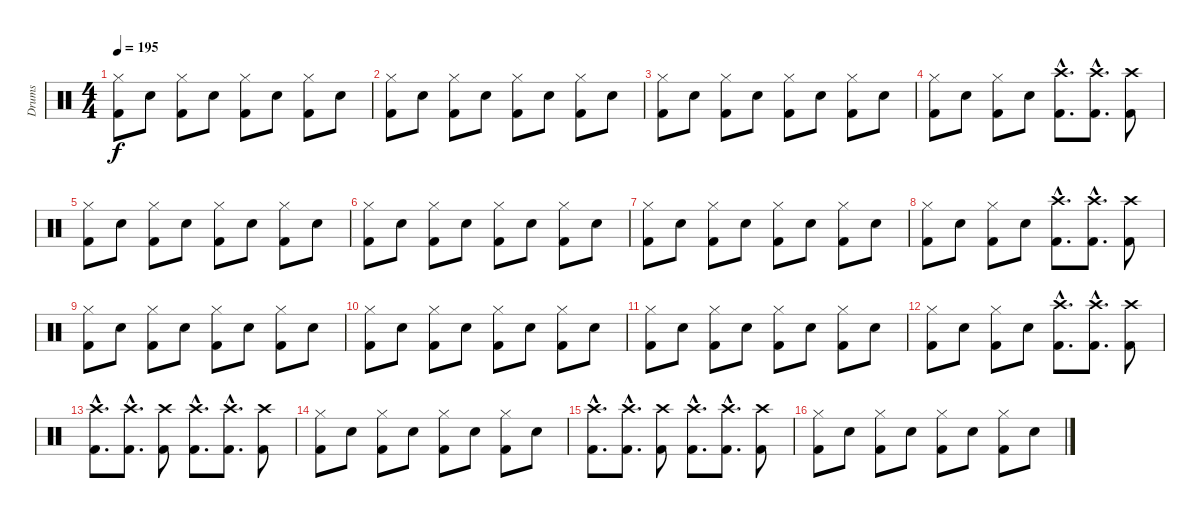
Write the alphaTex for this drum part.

\track ("Drums" "Drums") {instrument percussion}
\staff {score}
\articulation defaults
\ts (4 4)
\tempo 195
\clef neutral
\ks c
("Kick (hit) 2" "Hi-Hat (closed)").8{dy f} "Snare (hit) 2".8 ("Kick (hit) 2" "Hi-Hat (closed)").8 "Snare (hit) 2".8 ("Kick (hit) 2" "Hi-Hat (closed)").8 "Snare (hit) 2".8 ("Kick (hit) 2" "Hi-Hat (closed)").8 "Snare (hit) 2".8 |
("Kick (hit) 2" "Hi-Hat (closed)").8 "Snare (hit) 2".8 ("Kick (hit) 2" "Hi-Hat (closed)").8 "Snare (hit) 2".8 ("Kick (hit) 2" "Hi-Hat (closed)").8 "Snare (hit) 2".8 ("Kick (hit) 2" "Hi-Hat (closed)").8 "Snare (hit) 2".8 |
("Kick (hit) 2" "Hi-Hat (closed)").8 "Snare (hit) 2".8 ("Kick (hit) 2" "Hi-Hat (closed)").8 "Snare (hit) 2".8 ("Kick (hit) 2" "Hi-Hat (closed)").8 "Snare (hit) 2".8 ("Kick (hit) 2" "Hi-Hat (closed)").8 "Snare (hit) 2".8 |
("Kick (hit) 2" "Hi-Hat (closed)").8 "Snare (hit) 2".8 ("Kick (hit) 2" "Hi-Hat (closed)").8 "Snare (hit) 2".8 ("Kick (hit) 2"{hac} "Crash high (hit)"{hac}).8{d} ("Kick (hit) 2"{hac} "Crash high (hit)"{hac}).8{d} ("Kick (hit) 2" "Crash high (hit)").8 |
("Kick (hit) 2" "Hi-Hat (closed)").8 "Snare (hit) 2".8 ("Kick (hit) 2" "Hi-Hat (closed)").8 "Snare (hit) 2".8 ("Kick (hit) 2" "Hi-Hat (closed)").8 "Snare (hit) 2".8 ("Kick (hit) 2" "Hi-Hat (closed)").8 "Snare (hit) 2".8 |
("Kick (hit) 2" "Hi-Hat (closed)").8 "Snare (hit) 2".8 ("Kick (hit) 2" "Hi-Hat (closed)").8 "Snare (hit) 2".8 ("Kick (hit) 2" "Hi-Hat (closed)").8 "Snare (hit) 2".8 ("Kick (hit) 2" "Hi-Hat (closed)").8 "Snare (hit) 2".8 |
("Kick (hit) 2" "Hi-Hat (closed)").8 "Snare (hit) 2".8 ("Kick (hit) 2" "Hi-Hat (closed)").8 "Snare (hit) 2".8 ("Kick (hit) 2" "Hi-Hat (closed)").8 "Snare (hit) 2".8 ("Kick (hit) 2" "Hi-Hat (closed)").8 "Snare (hit) 2".8 |
("Kick (hit) 2" "Hi-Hat (closed)").8 "Snare (hit) 2".8 ("Kick (hit) 2" "Hi-Hat (closed)").8 "Snare (hit) 2".8 ("Kick (hit) 2"{hac} "Crash high (hit)"{hac}).8{d} ("Kick (hit) 2"{hac} "Crash high (hit)"{hac}).8{d} ("Kick (hit) 2" "Crash high (hit)").8 |
("Kick (hit) 2" "Hi-Hat (closed)").8 "Snare (hit) 2".8 ("Kick (hit) 2" "Hi-Hat (closed)").8 "Snare (hit) 2".8 ("Kick (hit) 2" "Hi-Hat (closed)").8 "Snare (hit) 2".8 ("Kick (hit) 2" "Hi-Hat (closed)").8 "Snare (hit) 2".8 |
("Kick (hit) 2" "Hi-Hat (closed)").8 "Snare (hit) 2".8 ("Kick (hit) 2" "Hi-Hat (closed)").8 "Snare (hit) 2".8 ("Kick (hit) 2" "Hi-Hat (closed)").8 "Snare (hit) 2".8 ("Kick (hit) 2" "Hi-Hat (closed)").8 "Snare (hit) 2".8 |
("Kick (hit) 2" "Hi-Hat (closed)").8 "Snare (hit) 2".8 ("Kick (hit) 2" "Hi-Hat (closed)").8 "Snare (hit) 2".8 ("Kick (hit) 2" "Hi-Hat (closed)").8 "Snare (hit) 2".8 ("Kick (hit) 2" "Hi-Hat (closed)").8 "Snare (hit) 2".8 |
("Kick (hit) 2" "Hi-Hat (closed)").8 "Snare (hit) 2".8 ("Kick (hit) 2" "Hi-Hat (closed)").8 "Snare (hit) 2".8 ("Kick (hit) 2"{hac} "Crash high (hit)"{hac}).8{d} ("Kick (hit) 2"{hac} "Crash high (hit)"{hac}).8{d} ("Kick (hit) 2" "Crash high (hit)").8 |
("Crash high (hit)"{hac} "Kick (hit) 2"{hac}).8{d} ("Crash high (hit)"{hac} "Kick (hit) 2"{hac}).8{d} ("Crash high (hit)" "Kick (hit) 2").8 ("Crash high (hit)"{hac} "Kick (hit) 2"{hac}).8{d} ("Crash high (hit)"{hac} "Kick (hit) 2"{hac}).8{d} ("Crash high (hit)" "Kick (hit) 2").8 |
("Kick (hit) 2" "Hi-Hat (closed)").8 "Snare (hit) 2".8 ("Kick (hit) 2" "Hi-Hat (closed)").8 "Snare (hit) 2".8 ("Kick (hit) 2" "Hi-Hat (closed)").8 "Snare (hit) 2".8 ("Kick (hit) 2" "Hi-Hat (closed)").8 "Snare (hit) 2".8 |
("Crash high (hit)"{hac} "Kick (hit) 2"{hac}).8{d} ("Crash high (hit)"{hac} "Kick (hit) 2"{hac}).8{d} ("Crash high (hit)" "Kick (hit) 2").8 ("Crash high (hit)"{hac} "Kick (hit) 2"{hac}).8{d} ("Crash high (hit)"{hac} "Kick (hit) 2"{hac}).8{d} ("Crash high (hit)" "Kick (hit) 2").8 |
("Kick (hit) 2" "Hi-Hat (closed)").8 "Snare (hit) 2".8 ("Kick (hit) 2" "Hi-Hat (closed)").8 "Snare (hit) 2".8 ("Kick (hit) 2" "Hi-Hat (closed)").8 "Snare (hit) 2".8 ("Kick (hit) 2" "Hi-Hat (closed)").8 "Snare (hit) 2".8
